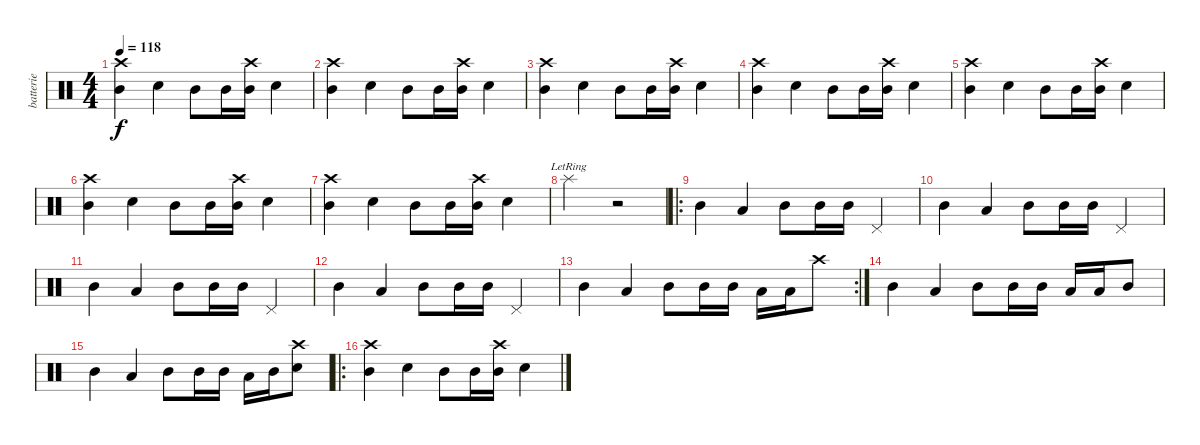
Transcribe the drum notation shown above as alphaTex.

\track ("batterie" "batterie") {instrument percussion}
\staff {score}
\articulation defaults
\ts (4 4)
\tempo 118
\clef neutral
\ks c
("Mid Tom (hit)" "Crash high (hit)").4{dy f} "Electric Snare (hit)".4 "Mid Tom (hit)".8 "Mid Tom (hit)".16 ("Mid Tom (hit)" "Crash high (hit)").16 "Electric Snare (hit)".4 |
("Mid Tom (hit)" "Crash high (hit)").4 "Electric Snare (hit)".4 "Mid Tom (hit)".8 "Mid Tom (hit)".16 ("Mid Tom (hit)" "Crash high (hit)").16 "Electric Snare (hit)".4 |
("Mid Tom (hit)" "Crash high (hit)").4 "Electric Snare (hit)".4 "Mid Tom (hit)".8 "Mid Tom (hit)".16 ("Mid Tom (hit)" "Crash high (hit)").16 "Electric Snare (hit)".4 |
("Mid Tom (hit)" "Crash high (hit)").4 "Electric Snare (hit)".4 "Mid Tom (hit)".8 "Mid Tom (hit)".16 ("Mid Tom (hit)" "Crash high (hit)").16 "Electric Snare (hit)".4 |
("Mid Tom (hit)" "Crash high (hit)").4 "Electric Snare (hit)".4 "Mid Tom (hit)".8 "Mid Tom (hit)".16 ("Mid Tom (hit)" "Crash high (hit)").16 "Electric Snare (hit)".4 |
("Mid Tom (hit)" "Crash high (hit)").4 "Electric Snare (hit)".4 "Mid Tom (hit)".8 "Mid Tom (hit)".16 ("Mid Tom (hit)" "Crash high (hit)").16 "Electric Snare (hit)".4 |
("Mid Tom (hit)" "Crash high (hit)").4 "Electric Snare (hit)".4 "Mid Tom (hit)".8 "Mid Tom (hit)".16 ("Mid Tom (hit)" "Crash high (hit)").16 "Electric Snare (hit)".4 |
"Splash (hit)"{lr}.2 r.2 |
\ro "Mid Tom (hit)".4 "Low Tom (hit)".4 "Mid Tom (hit)".8 "Mid Tom (hit)".16 "Mid Tom (hit)".16 "Pedal Hi-Hat (hit)".4
|
"Mid Tom (hit)".4 "Low Tom (hit)".4 "Mid Tom (hit)".8 "Mid Tom (hit)".16 "Mid Tom (hit)".16 "Pedal Hi-Hat (hit)".4 |
"Mid Tom (hit)".4 "Low Tom (hit)".4 "Mid Tom (hit)".8 "Mid Tom (hit)".16 "Mid Tom (hit)".16 "Pedal Hi-Hat (hit)".4 |
"Mid Tom (hit)".4 "Low Tom (hit)".4 "Mid Tom (hit)".8 "Mid Tom (hit)".16 "Mid Tom (hit)".16 "Pedal Hi-Hat (hit)".4 |
\rc 2 "Mid Tom (hit)".4 "Low Tom (hit)".4 "Mid Tom (hit)".8 "Mid Tom (hit)".16 "Mid Tom (hit)".16 "Low Tom (hit)".16 "Low Tom (hit)".16 "Crash high (hit)".8
|
"Mid Tom (hit)".4 "Low Tom (hit)".4 "Mid Tom (hit)".8 "Mid Tom (hit)".16 "Mid Tom (hit)".16 "Low Tom (hit)".16 "Low Tom (hit)".16 "Mid Tom (hit)".8 |
"Mid Tom (hit)".4 "Low Tom (hit)".4 "Mid Tom (hit)".8 "Mid Tom (hit)".16 "Mid Tom (hit)".16 "Low Tom (hit)".16 "Mid Tom (hit)".16 ("Electric Snare (hit)" "Crash high (hit)").8 |
\ro
("Mid Tom (hit)" "Crash high (hit)").4 "Electric Snare (hit)".4 "Mid Tom (hit)".8 "Mid Tom (hit)".16 ("Mid Tom (hit)" "Crash high (hit)").16 "Electric Snare (hit)".4
